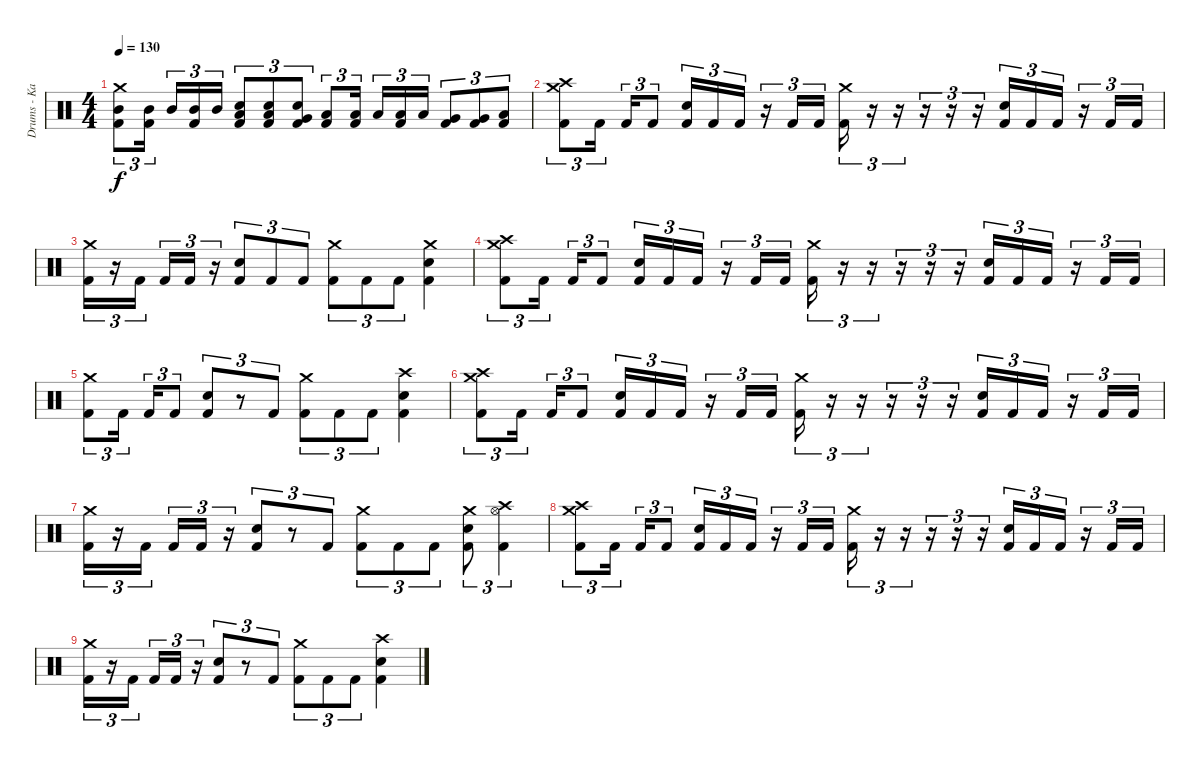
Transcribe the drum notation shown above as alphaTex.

\track ("Drums - Kai Hahto " "Drums - Ka") {instrument percussion}
\staff {score}
\articulation defaults
\ts (4 4)
\tempo 130
\clef neutral
\ks c
("Crash medium (hit)" "Mid Tom (hit)" "Kick (hit) 2").8{tu (3 2) dy f} ("Mid Tom (hit)" "Kick (hit) 2").16{tu (3 2) beam splitsecondary} "Mid Tom (hit)".16{tu (3 2)} ("Mid Tom (hit)" "Kick (hit) 2").16{tu (3 2)} "Mid Tom (hit)".16{tu (3 2)} ("Low Tom (hit)" "Snare (hit) 2" "Kick (hit) 2").8{tu (3 2)} ("Low Tom (hit)" "Snare (hit) 2" "Kick (hit) 2").8{tu (3 2)} ("Very Low Tom (hit)" "Snare (hit) 2" "Kick (hit) 2").8{tu (3 2)} ("Low Tom (hit)" "Kick (hit) 2").8{tu (3 2)} ("Low Tom (hit)" "Kick (hit) 2").16{tu (3 2) beam splitsecondary} "Low Tom (hit)".16{tu (3 2)} ("Low Tom (hit)" "Kick (hit) 2").16{tu (3 2)} "Low Tom (hit)".16{tu (3 2)} ("Very Low Tom (hit)" "Kick (hit) 2").8{tu (3 2)} ("Very Low Tom (hit)" "Kick (hit) 2").8{tu (3 2)} ("Low Floor Tom (hit)" "Kick (hit) 2").8{tu (3 2)} |
("Crash medium (hit)" "Crash high (hit)" "Kick (hit) 2").8{tu (3 2)} "Kick (hit) 2".16{tu (3 2) beam splitsecondary} "Kick (hit) 2".16{tu (3 2)} "Kick (hit) 2".8{tu (3 2)} ("Snare (hit) 2" "Kick (hit) 2").16{tu (3 2)} "Kick (hit) 2".16{tu (3 2)} "Kick (hit) 2".16{tu (3 2)} r.16{tu (3 2)} "Kick (hit) 2".16{tu (3 2)} "Kick (hit) 2".16{tu (3 2)} ("Crash medium (hit)" "Kick (hit) 2").16{tu (3 2)} r.16{tu (3 2)} r.16{tu (3 2)} r.16{tu (3 2)} r.16{tu (3 2)} r.16{tu (3 2)} ("Snare (hit) 2" "Kick (hit) 2").16{tu (3 2)} "Kick (hit) 2".16{tu (3 2)} "Kick (hit) 2".16{tu (3 2)} r.16{tu (3 2)} "Kick (hit) 2".16{tu (3 2)} "Kick (hit) 2".16{tu (3 2)} |
("Crash medium (hit)" "Kick (hit) 2").16{tu (3 2)} r.16{tu (3 2)} "Kick (hit) 2".16{tu (3 2) beam splitsecondary} "Kick (hit) 2".16{tu (3 2)} "Kick (hit) 2".16{tu (3 2)} r.16{tu (3 2)} ("Snare (hit) 2" "Kick (hit) 2").8{tu (3 2)} "Kick (hit) 2".8{tu (3 2)} "Kick (hit) 2".8{tu (3 2)} ("Crash medium (hit)" "Kick (hit) 2").8{tu (3 2)} "Kick (hit) 2".8{tu (3 2)} "Kick (hit) 2".8{tu (3 2)} ("Crash medium (hit)" "Snare (hit) 2" "Kick (hit) 2").4 |
("Crash medium (hit)" "Crash high (hit)" "Kick (hit) 2").8{tu (3 2)} "Kick (hit) 2".16{tu (3 2) beam splitsecondary} "Kick (hit) 2".16{tu (3 2)} "Kick (hit) 2".8{tu (3 2)} ("Snare (hit) 2" "Kick (hit) 2").16{tu (3 2)} "Kick (hit) 2".16{tu (3 2)} "Kick (hit) 2".16{tu (3 2)} r.16{tu (3 2)} "Kick (hit) 2".16{tu (3 2)} "Kick (hit) 2".16{tu (3 2)} ("Crash medium (hit)" "Kick (hit) 2").16{tu (3 2)} r.16{tu (3 2)} r.16{tu (3 2)} r.16{tu (3 2)} r.16{tu (3 2)} r.16{tu (3 2)} ("Snare (hit) 2" "Kick (hit) 2").16{tu (3 2)} "Kick (hit) 2".16{tu (3 2)} "Kick (hit) 2".16{tu (3 2)} r.16{tu (3 2)} "Kick (hit) 2".16{tu (3 2)} "Kick (hit) 2".16{tu (3 2)} |
("Crash medium (hit)" "Kick (hit) 2").8{tu (3 2)} "Kick (hit) 2".16{tu (3 2) beam splitsecondary} "Kick (hit) 2".16{tu (3 2)} "Kick (hit) 2".8{tu (3 2)} ("Snare (hit) 2" "Kick (hit) 2").8{tu (3 2)} r.8{tu (3 2)} "Kick (hit) 2".8{tu (3 2)} ("Crash medium (hit)" "Kick (hit) 2").8{tu (3 2)} "Kick (hit) 2".8{tu (3 2)} "Kick (hit) 2".8{tu (3 2)} ("Crash high (hit)" "Snare (hit) 2" "Kick (hit) 2").4 |
("Crash medium (hit)" "Crash high (hit)" "Kick (hit) 2").8{tu (3 2)} "Kick (hit) 2".16{tu (3 2) beam splitsecondary} "Kick (hit) 2".16{tu (3 2)} "Kick (hit) 2".8{tu (3 2)} ("Snare (hit) 2" "Kick (hit) 2").16{tu (3 2)} "Kick (hit) 2".16{tu (3 2)} "Kick (hit) 2".16{tu (3 2)} r.16{tu (3 2)} "Kick (hit) 2".16{tu (3 2)} "Kick (hit) 2".16{tu (3 2)} ("Crash medium (hit)" "Kick (hit) 2").16{tu (3 2)} r.16{tu (3 2)} r.16{tu (3 2)} r.16{tu (3 2)} r.16{tu (3 2)} r.16{tu (3 2)} ("Snare (hit) 2" "Kick (hit) 2").16{tu (3 2)} "Kick (hit) 2".16{tu (3 2)} "Kick (hit) 2".16{tu (3 2)} r.16{tu (3 2)} "Kick (hit) 2".16{tu (3 2)} "Kick (hit) 2".16{tu (3 2)} |
("Crash medium (hit)" "Kick (hit) 2").16{tu (3 2)} r.16{tu (3 2)} "Kick (hit) 2".16{tu (3 2) beam splitsecondary} "Kick (hit) 2".16{tu (3 2)} "Kick (hit) 2".16{tu (3 2)} r.16{tu (3 2)} ("Snare (hit) 2" "Kick (hit) 2").8{tu (3 2)} r.8{tu (3 2)} "Kick (hit) 2".8{tu (3 2)} ("Crash medium (hit)" "Kick (hit) 2").8{tu (3 2)} "Kick (hit) 2".8{tu (3 2)} "Kick (hit) 2".8{tu (3 2)} ("Crash medium (hit)" "Snare (hit) 2" "Kick (hit) 2").8{tu (3 2)} ("Crash high (hit)" "Hi-Hat (open)" "Kick (hit) 2").4{tu (3 2)} |
("Crash medium (hit)" "Crash high (hit)" "Kick (hit) 2").8{tu (3 2)} "Kick (hit) 2".16{tu (3 2) beam splitsecondary} "Kick (hit) 2".16{tu (3 2)} "Kick (hit) 2".8{tu (3 2)} ("Snare (hit) 2" "Kick (hit) 2").16{tu (3 2)} "Kick (hit) 2".16{tu (3 2)} "Kick (hit) 2".16{tu (3 2)} r.16{tu (3 2)} "Kick (hit) 2".16{tu (3 2)} "Kick (hit) 2".16{tu (3 2)} ("Crash medium (hit)" "Kick (hit) 2").16{tu (3 2)} r.16{tu (3 2)} r.16{tu (3 2)} r.16{tu (3 2)} r.16{tu (3 2)} r.16{tu (3 2)} ("Snare (hit) 2" "Kick (hit) 2").16{tu (3 2)} "Kick (hit) 2".16{tu (3 2)} "Kick (hit) 2".16{tu (3 2)} r.16{tu (3 2)} "Kick (hit) 2".16{tu (3 2)} "Kick (hit) 2".16{tu (3 2)} |
("Crash medium (hit)" "Kick (hit) 2").16{tu (3 2)} r.16{tu (3 2)} "Kick (hit) 2".16{tu (3 2) beam splitsecondary} "Kick (hit) 2".16{tu (3 2)} "Kick (hit) 2".16{tu (3 2)} r.16{tu (3 2)} ("Snare (hit) 2" "Kick (hit) 2").8{tu (3 2)} r.8{tu (3 2)} "Kick (hit) 2".8{tu (3 2)} ("Crash medium (hit)" "Kick (hit) 2").8{tu (3 2)} "Kick (hit) 2".8{tu (3 2)} "Kick (hit) 2".8{tu (3 2)} ("Crash high (hit)" "Snare (hit) 2" "Kick (hit) 2").4
